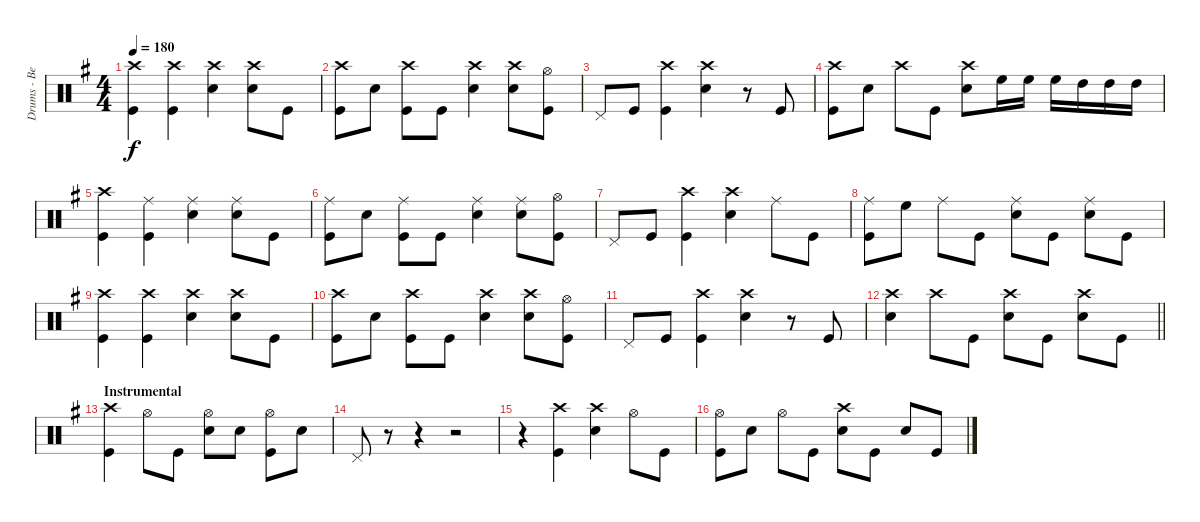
\track ("Drums - Ben Johnston" "Drums - Be") {instrument percussion}
\staff {score}
\articulation defaults
\ts (4 4)
\tempo 180
\clef neutral
\ks eminor
("Crash high (hit)" "Kick (hit)").4{dy f} ("Crash high (hit)" "Kick (hit)").4 ("Crash high (hit)" "Snare (hit) 2").4 ("Crash high (hit)" "Snare (hit) 2").8 "Kick (hit)".8 |
("Crash high (hit)" "Kick (hit)").8 "Snare (hit) 2".8 ("Crash high (hit)" "Kick (hit)").8 "Kick (hit)".8 ("Crash high (hit)" "Snare (hit) 2").4 ("Crash high (hit)" "Snare (hit) 2").8 ("Hi-Hat (open)" "Kick (hit)").8 |
"Pedal Hi-Hat (hit)".8 "Kick (hit)".8 ("Crash high (hit)" "Kick (hit)").4 ("Crash high (hit)" "Snare (hit) 2").4 r.8 "Kick (hit)".8 |
("Crash high (hit)" "Kick (hit)").8 "Snare (hit) 2".8 "Crash high (hit)".8 "Kick (hit)".8 ("Crash high (hit)" "Snare (hit) 2").8 "High Floor Tom (hit)".16 "High Floor Tom (hit)".16 "High Floor Tom (hit)".16 "High Tom (hit)".16 "High Tom (hit)".16 "High Tom (hit)".16 |
("Crash high (hit)" "Kick (hit)").4 ("Ride (middle)" "Kick (hit)").4 ("Ride (middle)" "Snare (hit) 2").4 ("Ride (middle)" "Snare (hit) 2").8 "Kick (hit)".8 |
("Ride (middle)" "Kick (hit)").8 "Snare (hit) 2".8 ("Ride (middle)" "Kick (hit)").8 "Kick (hit)".8 ("Ride (middle)" "Snare (hit) 2").4 ("Ride (middle)" "Snare (hit) 2").8 ("Hi-Hat (open)" "Kick (hit)").8 |
"Pedal Hi-Hat (hit)".8 "Kick (hit)".8 ("Crash high (hit)" "Kick (hit)").4 ("Crash high (hit)" "Snare (hit) 2").4 "Ride (middle)".8 "Kick (hit)".8 |
("Ride (middle)" "Kick (hit)").8 "High Floor Tom (hit)".8 "Ride (middle)".8 "Kick (hit)".8 ("Ride (middle)" "Snare (hit) 2").8 "Kick (hit)".8 ("Ride (middle)" "Snare (hit) 2").8 "Kick (hit)".8 |
("Crash high (hit)" "Kick (hit)").4 ("Crash high (hit)" "Kick (hit)").4 ("Crash high (hit)" "Snare (hit) 2").4 ("Crash high (hit)" "Snare (hit) 2").8 "Kick (hit)".8 |
("Crash high (hit)" "Kick (hit)").8 "Snare (hit) 2".8 ("Crash high (hit)" "Kick (hit)").8 "Kick (hit)".8 ("Crash high (hit)" "Snare (hit) 2").4 ("Crash high (hit)" "Snare (hit) 2").8 ("Hi-Hat (open)" "Kick (hit)").8 |
"Pedal Hi-Hat (hit)".8 "Kick (hit)".8 ("Crash high (hit)" "Kick (hit)").4 ("Crash high (hit)" "Snare (hit) 2").4 r.8 "Kick (hit)".8 |
\barLineRight lightlight
("Crash high (hit)" "Snare (hit) 2").4 "Crash high (hit)".8 "Kick (hit)".8 ("Crash high (hit)" "Snare (hit) 2").8 "Kick (hit)".8 ("Crash high (hit)" "Snare (hit) 2").8 "Kick (hit)".8 |
\section ("" "Instrumental")
("Crash high (hit)" "Kick (hit)").4 "Hi-Hat (open)".8 "Kick (hit)".8 ("Hi-Hat (open)" "Snare (hit) 2").8 "Snare (hit) 2".8 ("Hi-Hat (open)" "Kick (hit)").8 "Snare (hit) 2".8 |
"Pedal Hi-Hat (hit)".8 r.8 r.4 r.2 |
r.4 ("Crash high (hit)" "Kick (hit)").4 ("Crash high (hit)" "Snare (hit) 2").4 "Hi-Hat (open)".8 "Kick (hit)".8 |
("Hi-Hat (open)" "Kick (hit)").8 "Snare (hit) 2".8 "Hi-Hat (open)".8 "Kick (hit)".8 ("Crash high (hit)" "Snare (hit) 2").8 "Kick (hit)".8 "Snare (hit) 2".8 "Kick (hit)".8
